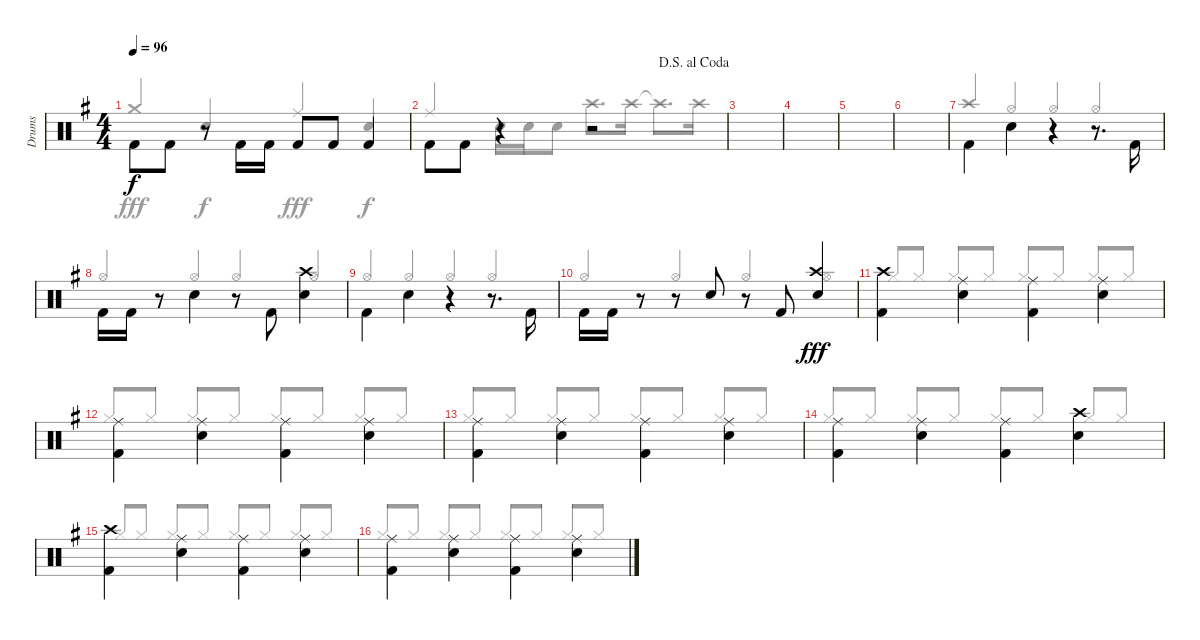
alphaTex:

\track ("Drums" "Drums") {instrument percussion}
\staff {score}
\articulation defaults
\voice
\ts (4 4)
\tempo 96
\clef neutral
\ks g "Kick (hit) 2".8{dy f beam Down} "Kick (hit) 2".8{beam Down}
r.8 "Kick (hit) 2".16{beam Down} "Kick (hit) 2".16{beam Down} "Kick (hit) 2".8 "Kick (hit) 2".8 "Kick (hit) 2".4 |
\jump dalsegnoalcoda "Kick (hit) 2".8{beam Down} "Kick (hit) 2".8{beam Down}
r.4 r.2 |
|
|
|
|
"Kick (hit) 2".4{beam Down} "Snare (hit) 2".4{beam Down} r.4 r.8{d} "Kick (hit) 2".16{beam Down} |
"Kick (hit) 2".16{beam Down} "Kick (hit) 2".16{beam Down} r.8 "Snare (hit) 2".4{beam Down} r.8 "Kick (hit) 2".8{beam Down} ("Crash high (hit)" "Snare (hit) 2").4{beam Down} |
"Kick (hit) 2".4{beam Down} "Snare (hit) 2".4{beam Down} r.4 r.8{d} "Kick (hit) 2".16{beam Down} |
"Kick (hit) 2".16{beam Down} "Kick (hit) 2".16{beam Down} r.8 r.8 "Snare (hit) 2".8 r.8 "Kick (hit) 2".8 ("Crash high (hit)" "Snare (hit) 2").4{dy fff} |
("Crash high (hit)" "Kick (hit) 2").4{beam Down} ("Ride (middle)" "Snare (hit) 2").4{beam Down} ("Ride (middle)" "Kick (hit) 2").4{beam Down} ("Ride (middle)" "Snare (hit) 2").4{beam Down} |
("Ride (middle)" "Kick (hit) 2").4{beam Down} ("Ride (middle)" "Snare (hit) 2").4{beam Down} ("Ride (middle)" "Kick (hit) 2").4{beam Down} ("Ride (middle)" "Snare (hit) 2").4{beam Down} |
("Ride (middle)" "Kick (hit) 2").4{beam Down} ("Ride (middle)" "Snare (hit) 2").4{beam Down} ("Ride (middle)" "Kick (hit) 2").4{beam Down} ("Ride (middle)" "Snare (hit) 2").4{beam Down} |
("Ride (middle)" "Kick (hit) 2").4{beam Down} ("Ride (middle)" "Snare (hit) 2").4{beam Down} ("Ride (middle)" "Kick (hit) 2").4{beam Down} ("Crash high (hit)" "Snare (hit) 2").4{beam Down} |
("Crash high (hit)" "Kick (hit) 2").4{beam Down} ("Ride (middle)" "Snare (hit) 2").4{beam Down} ("Ride (middle)" "Kick (hit) 2").4{beam Down} ("Ride (middle)" "Snare (hit) 2").4{beam Down} |
("Ride (middle)" "Kick (hit) 2").4{beam Down} ("Ride (middle)" "Snare (hit) 2").4{beam Down} ("Ride (middle)" "Kick (hit) 2").4{beam Down} ("Ride (middle)" "Snare (hit) 2").4{beam Down}
\voice
\clef neutral
\ottava regular
\simile none
\ks g "Crash medium (hit)".4{dy fff beam Up} "Snare (hit) 2".4{dy f beam Up} "Ride (middle)".4{dy fff beam Up} "Snare (hit) 2".4{dy f beam Up}
|
"Ride (middle)".4{beam Up} "Snare (hit) 2".16 "Snare (hit) 2".16 "Snare (hit) 2".8 "Crash high (hit)".8{d} "Crash high (hit)".16 "Crash high (hit)"{t}.8{d} "Crash high (hit)".16 |
|
|
|
|
"Crash high (hit)".4{beam Up} "Hi-Hat (open)".4{beam Up} "Hi-Hat (open)".4{beam Up} "Hi-Hat (open)".4{beam Up} |
"Hi-Hat (open)".4{beam Up} "Hi-Hat (open)".4{beam Up} "Hi-Hat (open)".4{beam Up} "Hi-Hat (open)".4{beam Up} |
"Hi-Hat (open)".4{beam Up} "Hi-Hat (open)".4{beam Up} "Hi-Hat (open)".4{beam Up} "Hi-Hat (open)".4{beam Up} |
"Hi-Hat (open)".4{beam Up} "Hi-Hat (open)".4{beam Up} "Hi-Hat (open)".4{beam Up} "Hi-Hat (open)".4{beam Up} |
"Hi-Hat (closed)".8{beam Up} "Hi-Hat (closed)".8{beam Up} "Hi-Hat (closed)".8{beam Up} "Hi-Hat (closed)".8{beam Up} "Hi-Hat (closed)".8{beam Up} "Hi-Hat (closed)".8{beam Up} "Hi-Hat (closed)".8{beam Up} "Hi-Hat (closed)".8{beam Up} |
"Hi-Hat (closed)".8{beam Up} "Hi-Hat (closed)".8{beam Up} "Hi-Hat (closed)".8{beam Up} "Hi-Hat (closed)".8{beam Up} "Hi-Hat (closed)".8{beam Up} "Hi-Hat (closed)".8{beam Up} "Hi-Hat (closed)".8{beam Up} "Hi-Hat (closed)".8{beam Up} |
"Hi-Hat (closed)".8{beam Up} "Hi-Hat (closed)".8{beam Up} "Hi-Hat (closed)".8{beam Up} "Hi-Hat (closed)".8{beam Up} "Hi-Hat (closed)".8{beam Up} "Hi-Hat (closed)".8{beam Up} "Hi-Hat (closed)".8{beam Up} "Hi-Hat (closed)".8{beam Up} |
"Hi-Hat (closed)".8{beam Up} "Hi-Hat (closed)".8{beam Up} "Hi-Hat (closed)".8{beam Up} "Hi-Hat (closed)".8{beam Up} "Hi-Hat (closed)".8{beam Up} "Hi-Hat (closed)".8{beam Up} "Hi-Hat (closed)".8{beam Up} "Hi-Hat (closed)".8{beam Up} |
"Hi-Hat (closed)".8{beam Up} "Hi-Hat (closed)".8{beam Up} "Hi-Hat (closed)".8{beam Up} "Hi-Hat (closed)".8{beam Up} "Hi-Hat (closed)".8{beam Up} "Hi-Hat (closed)".8{beam Up} "Hi-Hat (closed)".8{beam Up} "Hi-Hat (closed)".8{beam Up} |
"Hi-Hat (closed)".8{beam Up} "Hi-Hat (closed)".8{beam Up} "Hi-Hat (closed)".8{beam Up} "Hi-Hat (closed)".8{beam Up} "Hi-Hat (closed)".8{beam Up} "Hi-Hat (closed)".8{beam Up} "Hi-Hat (closed)".8{beam Up} "Hi-Hat (closed)".8{beam Up}
